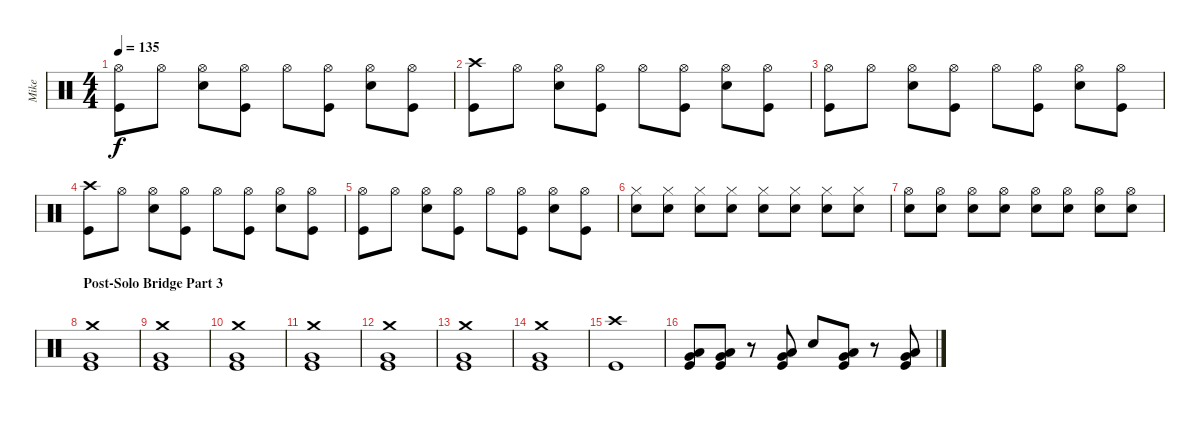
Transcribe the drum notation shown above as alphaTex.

\track ("Mike" "Mike") {instrument percussion}
\staff {score}
\articulation defaults
\ts (4 4)
\tempo 135
\clef neutral
\ks c
("Hi-Hat (open)" "Kick (hit)").8{dy f} "Hi-Hat (open)".8 ("Hi-Hat (open)" "Electric Snare (hit)").8 ("Hi-Hat (open)" "Kick (hit)").8 "Hi-Hat (open)".8 ("Hi-Hat (open)" "Kick (hit)").8 ("Hi-Hat (open)" "Electric Snare (hit)").8 ("Hi-Hat (open)" "Kick (hit)").8 |
("Crash high (hit)" "Kick (hit)").8 "Hi-Hat (open)".8 ("Hi-Hat (open)" "Electric Snare (hit)").8 ("Hi-Hat (open)" "Kick (hit)").8 "Hi-Hat (open)".8 ("Hi-Hat (open)" "Kick (hit)").8 ("Hi-Hat (open)" "Electric Snare (hit)").8 ("Hi-Hat (open)" "Kick (hit)").8 |
("Hi-Hat (open)" "Kick (hit)").8 "Hi-Hat (open)".8 ("Hi-Hat (open)" "Electric Snare (hit)").8 ("Hi-Hat (open)" "Kick (hit)").8 "Hi-Hat (open)".8 ("Hi-Hat (open)" "Kick (hit)").8 ("Hi-Hat (open)" "Electric Snare (hit)").8 ("Hi-Hat (open)" "Kick (hit)").8 |
("Crash high (hit)" "Kick (hit)").8 "Hi-Hat (open)".8 ("Hi-Hat (open)" "Electric Snare (hit)").8 ("Hi-Hat (open)" "Kick (hit)").8 "Hi-Hat (open)".8 ("Hi-Hat (open)" "Kick (hit)").8 ("Hi-Hat (open)" "Electric Snare (hit)").8 ("Hi-Hat (open)" "Kick (hit)").8 |
("Hi-Hat (open)" "Kick (hit)").8 "Hi-Hat (open)".8 ("Hi-Hat (open)" "Electric Snare (hit)").8 ("Hi-Hat (open)" "Kick (hit)").8 "Hi-Hat (open)".8 ("Hi-Hat (open)" "Kick (hit)").8 ("Hi-Hat (open)" "Electric Snare (hit)").8 ("Hi-Hat (open)" "Kick (hit)").8 |
("Hi-Hat (closed)" "Electric Snare (hit)").8{volume 4} ("Hi-Hat (closed)" "Electric Snare (hit)").8{volume 13} ("Hi-Hat (closed)" "Electric Snare (hit)").8 ("Hi-Hat (closed)" "Electric Snare (hit)").8 ("Hi-Hat (closed)" "Electric Snare (hit)").8 ("Hi-Hat (closed)" "Electric Snare (hit)").8 ("Hi-Hat (closed)" "Electric Snare (hit)").8 ("Hi-Hat (closed)" "Electric Snare (hit)").8 |
("Hi-Hat (open)" "Electric Snare (hit)").8 ("Hi-Hat (open)" "Electric Snare (hit)").8 ("Hi-Hat (open)" "Electric Snare (hit)").8 ("Hi-Hat (open)" "Electric Snare (hit)").8 ("Hi-Hat (open)" "Electric Snare (hit)").8 ("Hi-Hat (open)" "Electric Snare (hit)").8 ("Hi-Hat (open)" "Electric Snare (hit)").8 ("Hi-Hat (open)" "Electric Snare (hit)").8 |
\section ("" "Post-Solo Bridge Part 3")
("Crash medium (hit)" "Very Low Tom (hit)" "Kick (hit)").1{volume 13} |
("Crash medium (hit)" "Very Low Tom (hit)" "Kick (hit)").1 |
("Crash medium (hit)" "Very Low Tom (hit)" "Kick (hit)").1 |
("Crash medium (hit)" "Very Low Tom (hit)" "Kick (hit)").1 |
("Crash medium (hit)" "Very Low Tom (hit)" "Kick (hit)").1 |
("Crash medium (hit)" "Very Low Tom (hit)" "Kick (hit)").1 |
("Crash medium (hit)" "Very Low Tom (hit)" "Kick (hit)").1 |
("Crash high (hit)" "Kick (hit)").1 |
("Very Low Tom (hit)" "Low Tom (hit)" "Kick (hit)").8 ("Very Low Tom (hit)" "Low Tom (hit)" "Kick (hit)").8 r.8 ("Very Low Tom (hit)" "Low Tom (hit)" "Kick (hit)").8 "Electric Snare (hit)".8 ("Very Low Tom (hit)" "Low Tom (hit)" "Kick (hit)").8 r.8 ("Very Low Tom (hit)" "Low Tom (hit)" "Kick (hit)").8
